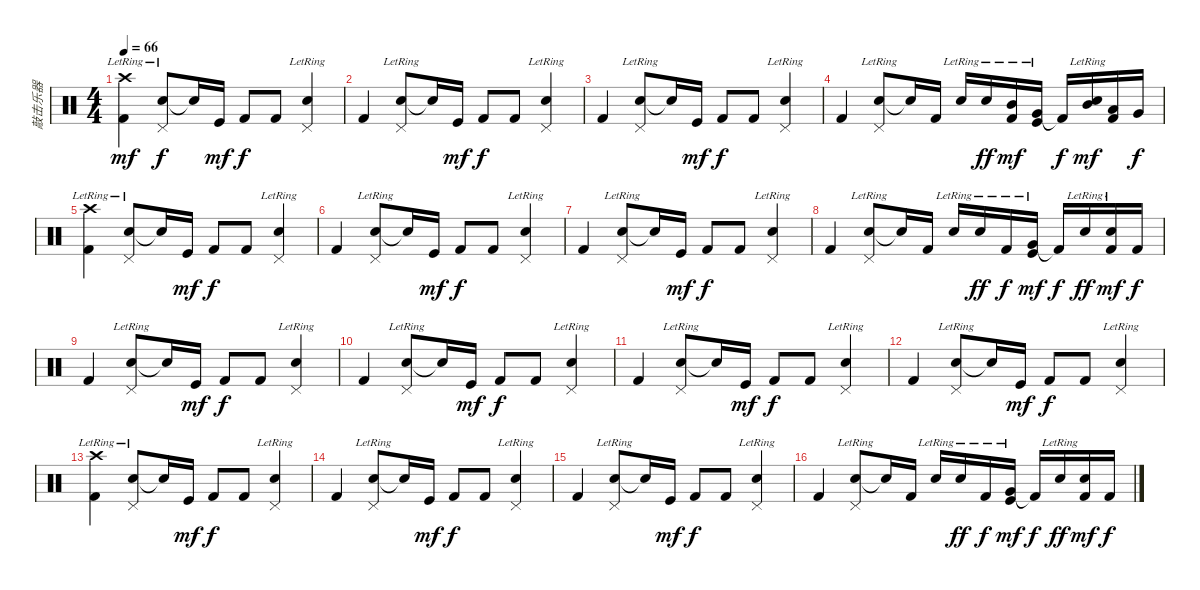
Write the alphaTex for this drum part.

\track ("敲击乐器" "敲击乐器") {instrument percussion}
\staff {score}
\articulation defaults
\ts (4 4)
\tempo 66
\clef neutral
\ks c
("Kick (hit) 2" "Crash high (hit)"{lr}).4{dy mf} ("Electric Snare (hit)" "Pedal Hi-Hat (hit)"{lr}).8{dy f} "Snare (hit)"{t}.16 "Kick (hit)".16{dy mf} "Kick (hit) 2".8{dy f} "Kick (hit) 2".8 ("Electric Snare (hit)" "Pedal Hi-Hat (hit)"{lr}).4 |
"Kick (hit) 2".4 ("Electric Snare (hit)" "Pedal Hi-Hat (hit)"{lr}).8 "Snare (hit)"{t}.16 "Kick (hit)".16{dy mf} "Kick (hit) 2".8{dy f} "Kick (hit) 2".8 ("Electric Snare (hit)" "Pedal Hi-Hat (hit)"{lr}).4 |
"Kick (hit) 2".4 ("Electric Snare (hit)" "Pedal Hi-Hat (hit)"{lr}).8 "Snare (hit)"{t}.16 "Kick (hit)".16{dy mf} "Kick (hit) 2".8{dy f} "Kick (hit) 2".8 ("Electric Snare (hit)" "Pedal Hi-Hat (hit)"{lr}).4 |
"Kick (hit) 2".4 ("Electric Snare (hit)" "Pedal Hi-Hat (hit)"{lr}).8 "Snare (hit)"{t}.16 "Kick (hit) 2".16 "Snare (hit) 2"{lr}.16 "Electric Snare (hit)"{lr}.16{dy ff} ("Kick (hit) 2"{lr} "Mid Tom (hit)").16{dy mf} ("Very Low Tom (hit)"{lr} "Kick (hit)").16 "Kick (hit) 2"{t}.16{dy f} ("Mid Tom (hit)"{lr} "Electric Snare (hit)"{lr}).16{dy mf} ("Low Tom (hit)"{lr} "Kick (hit) 2"{lr}).16 "Very Low Tom (hit)".16{dy f} |
("Kick (hit) 2" "Crash high (hit)"{lr}).4 ("Electric Snare (hit)" "Pedal Hi-Hat (hit)"{lr}).8 "Snare (hit)"{t}.16 "Kick (hit)".16{dy mf} "Kick (hit) 2".8{dy f} "Kick (hit) 2".8 ("Electric Snare (hit)" "Pedal Hi-Hat (hit)"{lr}).4 |
"Kick (hit) 2".4 ("Electric Snare (hit)" "Pedal Hi-Hat (hit)"{lr}).8 "Snare (hit)"{t}.16 "Kick (hit)".16{dy mf} "Kick (hit) 2".8{dy f} "Kick (hit) 2".8 ("Electric Snare (hit)" "Pedal Hi-Hat (hit)"{lr}).4 |
"Kick (hit) 2".4 ("Electric Snare (hit)" "Pedal Hi-Hat (hit)"{lr}).8 "Snare (hit)"{t}.16 "Kick (hit)".16{dy mf} "Kick (hit) 2".8{dy f} "Kick (hit) 2".8 ("Electric Snare (hit)" "Pedal Hi-Hat (hit)"{lr}).4 |
"Kick (hit) 2".4 ("Electric Snare (hit)" "Pedal Hi-Hat (hit)"{lr}).8 "Snare (hit)"{t}.16 "Kick (hit) 2".16 "Snare (hit) 2"{lr}.16 "Electric Snare (hit)"{lr}.16{dy ff} "Kick (hit) 2"{lr}.16{dy f} ("Very Low Tom (hit)"{lr} "Kick (hit)").16{dy mf} "Kick (hit) 2"{t}.16{dy f} "Snare (hit) 2"{lr}.16{dy ff} ("Electric Snare (hit)"{lr} "Kick (hit) 2"{lr}).16{dy mf} "Kick (hit) 2".16{dy f} |
"Kick (hit) 2".4 ("Electric Snare (hit)" "Pedal Hi-Hat (hit)"{lr}).8 "Snare (hit)"{t}.16 "Kick (hit)".16{dy mf} "Kick (hit) 2".8{dy f} "Kick (hit) 2".8 ("Electric Snare (hit)" "Pedal Hi-Hat (hit)"{lr}).4 |
"Kick (hit) 2".4 ("Electric Snare (hit)" "Pedal Hi-Hat (hit)"{lr}).8 "Snare (hit)"{t}.16 "Kick (hit)".16{dy mf} "Kick (hit) 2".8{dy f} "Kick (hit) 2".8 ("Electric Snare (hit)" "Pedal Hi-Hat (hit)"{lr}).4 |
"Kick (hit) 2".4 ("Electric Snare (hit)" "Pedal Hi-Hat (hit)"{lr}).8 "Snare (hit)"{t}.16 "Kick (hit)".16{dy mf} "Kick (hit) 2".8{dy f} "Kick (hit) 2".8 ("Electric Snare (hit)" "Pedal Hi-Hat (hit)"{lr}).4 |
"Kick (hit) 2".4 ("Electric Snare (hit)" "Pedal Hi-Hat (hit)"{lr}).8 "Snare (hit)"{t}.16 "Kick (hit)".16{dy mf} "Kick (hit) 2".8{dy f} "Kick (hit) 2".8 ("Electric Snare (hit)" "Pedal Hi-Hat (hit)"{lr}).4 |
("Kick (hit) 2" "Crash high (hit)"{lr}).4 ("Electric Snare (hit)" "Pedal Hi-Hat (hit)"{lr}).8 "Snare (hit)"{t}.16 "Kick (hit)".16{dy mf} "Kick (hit) 2".8{dy f} "Kick (hit) 2".8 ("Electric Snare (hit)" "Pedal Hi-Hat (hit)"{lr}).4 |
"Kick (hit) 2".4 ("Electric Snare (hit)" "Pedal Hi-Hat (hit)"{lr}).8 "Snare (hit)"{t}.16 "Kick (hit)".16{dy mf} "Kick (hit) 2".8{dy f} "Kick (hit) 2".8 ("Electric Snare (hit)" "Pedal Hi-Hat (hit)"{lr}).4 |
"Kick (hit) 2".4 ("Electric Snare (hit)" "Pedal Hi-Hat (hit)"{lr}).8 "Snare (hit)"{t}.16 "Kick (hit)".16{dy mf} "Kick (hit) 2".8{dy f} "Kick (hit) 2".8 ("Electric Snare (hit)" "Pedal Hi-Hat (hit)"{lr}).4 |
"Kick (hit) 2".4 ("Electric Snare (hit)" "Pedal Hi-Hat (hit)"{lr}).8 "Snare (hit)"{t}.16 "Kick (hit) 2".16 "Snare (hit) 2"{lr}.16 "Electric Snare (hit)"{lr}.16{dy ff} "Kick (hit) 2"{lr}.16{dy f} ("Very Low Tom (hit)"{lr} "Kick (hit)").16{dy mf} "Kick (hit) 2"{t}.16{dy f} "Snare (hit) 2"{lr}.16{dy ff} ("Electric Snare (hit)"{lr} "Kick (hit) 2"{lr}).16{dy mf} "Kick (hit) 2".16{dy f}
